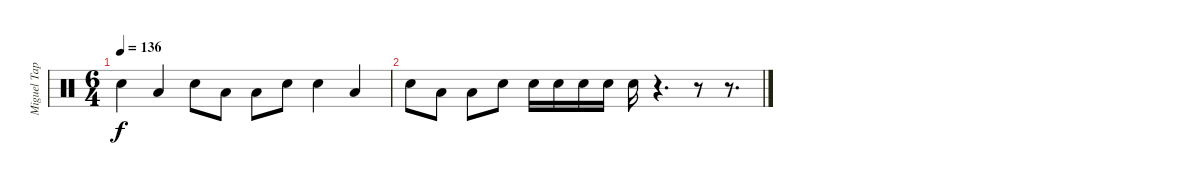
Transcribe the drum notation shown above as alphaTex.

\track ("Miguel Tapia (Bateria)" "Miguel Tap") {instrument percussion}
\staff {score}
\articulation defaults
\ts (6 4)
\tempo 136
\clef neutral
\ks c "Snare (hit) 2".4{dy f} "Low Tom (hit)".4 "Snare (hit) 2".8 "Low Tom (hit)".8 "Low Tom (hit)".8 "Snare (hit) 2".8 "Snare (hit) 2".4 "Low Tom (hit)".4
|
"Snare (hit) 2".8 "Low Tom (hit)".8 "Low Tom (hit)".8 "Snare (hit) 2".8 "Snare (hit) 2".16 "Snare (hit) 2".16 "Snare (hit) 2".16 "Snare (hit) 2".16 "Snare (hit) 2".16 r.4{d} r.8 r.8{d}
